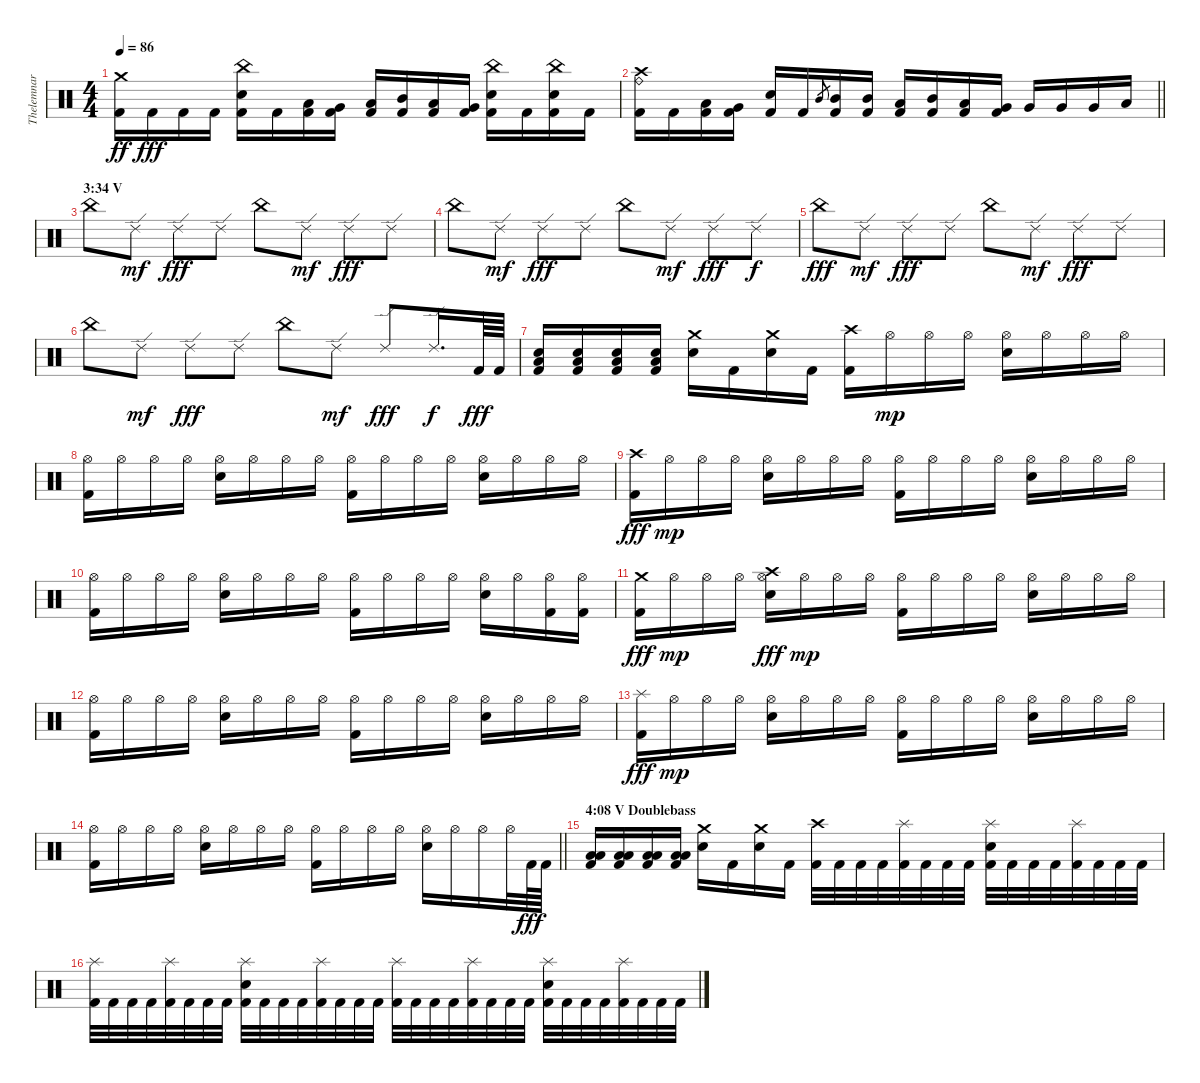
\track ("Thelemnar (Drums)" "Thelemnar ") {instrument percussion}
\staff {score}
\articulation defaults
\ts (4 4)
\tempo 86
\clef neutral
\ks c
("Kick (hit) 2" "Crash medium (hit)").16{dy ff} "Kick (hit) 2".16{dy fff} "Kick (hit) 2".16 "Kick (hit) 2".16 ("Kick (hit) 2" "Electric Snare (hit)" "China (hit)").16 "Kick (hit) 2".16 ("Kick (hit) 2" "Low Tom (hit)").16 ("Kick (hit) 2" "Very Low Tom (hit)").16 ("Kick (hit) 2" "Low Tom (hit)").16 ("Kick (hit) 2" "Mid Tom (hit)").16 ("Kick (hit) 2" "Low Tom (hit)").16 ("Kick (hit) 2" "Very Low Tom (hit)").16 ("Kick (hit) 2" "Electric Snare (hit)" "China (hit)").16 "Kick (hit) 2".16 ("Kick (hit) 2" "Electric Snare (hit)" "China (hit)").16 "Kick (hit) 2".16 |
\barLineRight lightlight
("Kick (hit) 2" "Ride (bell)" "Crash high (hit)").16 "Kick (hit) 2".16 ("Kick (hit) 2" "Low Tom (hit)").16 ("Kick (hit) 2" "Very Low Tom (hit)").16 ("Kick (hit) 2" "Electric Snare (hit)").16 "Kick (hit) 2".16 "Mid Tom (hit)".8{gr} ("Kick (hit) 2" "Mid Tom (hit)").16 ("Kick (hit) 2" "Mid Tom (hit)").16 ("Kick (hit) 2" "Low Tom (hit)").16 ("Kick (hit) 2" "Mid Tom (hit)").16 ("Kick (hit) 2" "Low Tom (hit)").16 ("Kick (hit) 2" "Very Low Tom (hit)").16 "Very Low Tom (hit)".16 "Very Low Tom (hit)".16 "Very Low Tom (hit)".16 "Low Floor Tom (hit)".16 |
\section ("" "3:34 V")
"China (hit)".8 "Ride (edge) 2".8{dy mf} "Ride (edge) 2".8{dy fff} "Ride (edge) 2".8 "China (hit)".8 "Ride (edge) 2".8{dy mf} "Ride (edge) 2".8{dy fff} "Ride (edge) 2".8 |
"China (hit)".8 "Ride (edge) 2".8{dy mf} "Ride (edge) 2".8{dy fff} "Ride (edge) 2".8 "China (hit)".8 "Ride (edge) 2".8{dy mf} "Ride (edge) 2".8{dy fff} "Ride (edge) 2".8{dy f} |
"China (hit)".8{dy fff} "Ride (edge) 2".8{dy mf} "Ride (edge) 2".8{dy fff} "Ride (edge) 2".8 "China (hit)".8 "Ride (edge) 2".8{dy mf} "Ride (edge) 2".8{dy fff} "Ride (edge) 2".8 |
"China (hit)".8 "Ride (edge) 2".8{dy mf} "Ride (edge) 2".8{dy fff} "Ride (edge) 2".8 "China (hit)".8 "Ride (edge) 2".8{dy mf} "Ride (edge) 2".8{dy fff} "Ride (edge) 2".16{d dy f} "Kick (hit) 2".64{dy fff} "Kick (hit) 2".64 |
("Kick (hit) 2" "Low Floor Tom (hit)" "Electric Snare (hit)").16 ("Kick (hit) 2" "Low Floor Tom (hit)" "Electric Snare (hit)").16 ("Kick (hit) 2" "Low Floor Tom (hit)" "Electric Snare (hit)").16 ("Kick (hit) 2" "Low Floor Tom (hit)" "Electric Snare (hit)").16 ("Electric Snare (hit)" "Crash medium (hit)").16 "Kick (hit) 2".16 ("Electric Snare (hit)" "Crash medium (hit)").16 "Kick (hit) 2".16 ("Kick (hit) 2" "Crash high (hit)").16 "Hi-Hat (open)".16{dy mp} "Hi-Hat (open)".16 "Hi-Hat (open)".16 ("Electric Snare (hit)" "Hi-Hat (open)").16 "Hi-Hat (open)".16 "Hi-Hat (open)".16 "Hi-Hat (open)".16 |
("Kick (hit) 2" "Hi-Hat (open)").16 "Hi-Hat (open)".16 "Hi-Hat (open)".16 "Hi-Hat (open)".16 ("Electric Snare (hit)" "Hi-Hat (open)").16 "Hi-Hat (open)".16 "Hi-Hat (open)".16 "Hi-Hat (open)".16 ("Kick (hit) 2" "Hi-Hat (open)").16 "Hi-Hat (open)".16 "Hi-Hat (open)".16 "Hi-Hat (open)".16 ("Electric Snare (hit)" "Hi-Hat (open)").16 "Hi-Hat (open)".16 "Hi-Hat (open)".16 "Hi-Hat (open)".16 |
("Kick (hit) 2" "Crash high (hit)").16{dy fff} "Hi-Hat (open)".16{dy mp} "Hi-Hat (open)".16 "Hi-Hat (open)".16 ("Electric Snare (hit)" "Hi-Hat (open)").16 "Hi-Hat (open)".16 "Hi-Hat (open)".16 "Hi-Hat (open)".16 ("Kick (hit) 2" "Hi-Hat (open)").16 "Hi-Hat (open)".16 "Hi-Hat (open)".16 "Hi-Hat (open)".16 ("Electric Snare (hit)" "Hi-Hat (open)").16 "Hi-Hat (open)".16 "Hi-Hat (open)".16 "Hi-Hat (open)".16 |
("Kick (hit) 2" "Hi-Hat (open)").16 "Hi-Hat (open)".16 "Hi-Hat (open)".16 "Hi-Hat (open)".16 ("Electric Snare (hit)" "Hi-Hat (open)").16 "Hi-Hat (open)".16 "Hi-Hat (open)".16 "Hi-Hat (open)".16 ("Kick (hit) 2" "Hi-Hat (open)").16 "Hi-Hat (open)".16 "Hi-Hat (open)".16 "Hi-Hat (open)".16 ("Electric Snare (hit)" "Hi-Hat (open)").16 "Hi-Hat (open)".16 ("Kick (hit) 2" "Hi-Hat (open)").16 ("Kick (hit) 2" "Hi-Hat (open)").16 |
("Kick (hit) 2" "Crash medium (hit)").16{dy fff} "Hi-Hat (open)".16{dy mp} "Hi-Hat (open)".16 "Hi-Hat (open)".16 ("Electric Snare (hit)" "Hi-Hat (open)" "Crash high (hit)").16{dy fff} "Hi-Hat (open)".16{dy mp} "Hi-Hat (open)".16 "Hi-Hat (open)".16 ("Kick (hit) 2" "Hi-Hat (open)").16 "Hi-Hat (open)".16 "Hi-Hat (open)".16 "Hi-Hat (open)".16 ("Electric Snare (hit)" "Hi-Hat (open)").16 "Hi-Hat (open)".16 "Hi-Hat (open)".16 "Hi-Hat (open)".16 |
("Kick (hit) 2" "Hi-Hat (open)").16 "Hi-Hat (open)".16 "Hi-Hat (open)".16 "Hi-Hat (open)".16 ("Electric Snare (hit)" "Hi-Hat (open)").16 "Hi-Hat (open)".16 "Hi-Hat (open)".16 "Hi-Hat (open)".16 ("Kick (hit) 2" "Hi-Hat (open)").16 "Hi-Hat (open)".16 "Hi-Hat (open)".16 "Hi-Hat (open)".16 ("Electric Snare (hit)" "Hi-Hat (open)").16 "Hi-Hat (open)".16 "Hi-Hat (open)".16 "Hi-Hat (open)".16 |
("Kick (hit) 2" "Splash (hit)").16{dy fff} "Hi-Hat (open)".16{dy mp} "Hi-Hat (open)".16 "Hi-Hat (open)".16 ("Electric Snare (hit)" "Hi-Hat (open)").16 "Hi-Hat (open)".16 "Hi-Hat (open)".16 "Hi-Hat (open)".16 ("Kick (hit) 2" "Hi-Hat (open)").16 "Hi-Hat (open)".16 "Hi-Hat (open)".16 "Hi-Hat (open)".16 ("Electric Snare (hit)" "Hi-Hat (open)").16 "Hi-Hat (open)".16 "Hi-Hat (open)".16 "Hi-Hat (open)".16 |
\barLineRight lightlight
("Kick (hit) 2" "Hi-Hat (open)").16 "Hi-Hat (open)".16 "Hi-Hat (open)".16 "Hi-Hat (open)".16 ("Electric Snare (hit)" "Hi-Hat (open)").16 "Hi-Hat (open)".16 "Hi-Hat (open)".16 "Hi-Hat (open)".16 ("Kick (hit) 2" "Hi-Hat (open)").16 "Hi-Hat (open)".16 "Hi-Hat (open)".16 "Hi-Hat (open)".16 ("Electric Snare (hit)" "Hi-Hat (open)").16 "Hi-Hat (open)".16 "Hi-Hat (open)".16 "Hi-Hat (open)".32 "Kick (hit) 2".64{dy fff} "Kick (hit) 2".64 |
\section ("" "4:08 V Doublebass")
("Kick (hit) 2" "Low Floor Tom (hit)" "Low Tom (hit)").16 ("Kick (hit) 2" "Low Floor Tom (hit)" "Low Tom (hit)").16 ("Kick (hit) 2" "Low Floor Tom (hit)" "Low Tom (hit)").16 ("Kick (hit) 2" "Low Floor Tom (hit)" "Low Tom (hit)").16 ("Electric Snare (hit)" "Crash medium (hit)").16 "Kick (hit) 2".16 ("Electric Snare (hit)" "Crash medium (hit)").16 "Kick (hit) 2".16 ("Kick (hit) 2" "Crash high (hit)").32 "Kick (hit) 2".32 "Kick (hit) 2".32 "Kick (hit) 2".32 ("Kick (hit) 2" "Splash (hit)").32 "Kick (hit) 2".32 "Kick (hit) 2".32 "Kick (hit) 2".32 ("Kick (hit) 2" "Electric Snare (hit)" "Splash (hit)").32 "Kick (hit) 2".32 "Kick (hit) 2".32 "Kick (hit) 2".32 ("Kick (hit) 2" "Splash (hit)").32 "Kick (hit) 2".32 "Kick (hit) 2".32 "Kick (hit) 2".32 |
("Kick (hit) 2" "Splash (hit)").32 "Kick (hit) 2".32 "Kick (hit) 2".32 "Kick (hit) 2".32 ("Kick (hit) 2" "Splash (hit)").32 "Kick (hit) 2".32 "Kick (hit) 2".32 "Kick (hit) 2".32 ("Kick (hit) 2" "Electric Snare (hit)" "Splash (hit)").32 "Kick (hit) 2".32 "Kick (hit) 2".32 "Kick (hit) 2".32 ("Kick (hit) 2" "Splash (hit)").32 "Kick (hit) 2".32 "Kick (hit) 2".32 "Kick (hit) 2".32 ("Kick (hit) 2" "Splash (hit)").32 "Kick (hit) 2".32 "Kick (hit) 2".32 "Kick (hit) 2".32 ("Kick (hit) 2" "Splash (hit)").32 "Kick (hit) 2".32 "Kick (hit) 2".32 "Kick (hit) 2".32 ("Kick (hit) 2" "Electric Snare (hit)" "Splash (hit)").32 "Kick (hit) 2".32 "Kick (hit) 2".32 "Kick (hit) 2".32 ("Kick (hit) 2" "Splash (hit)").32 "Kick (hit) 2".32 "Kick (hit) 2".32 "Kick (hit) 2".32
